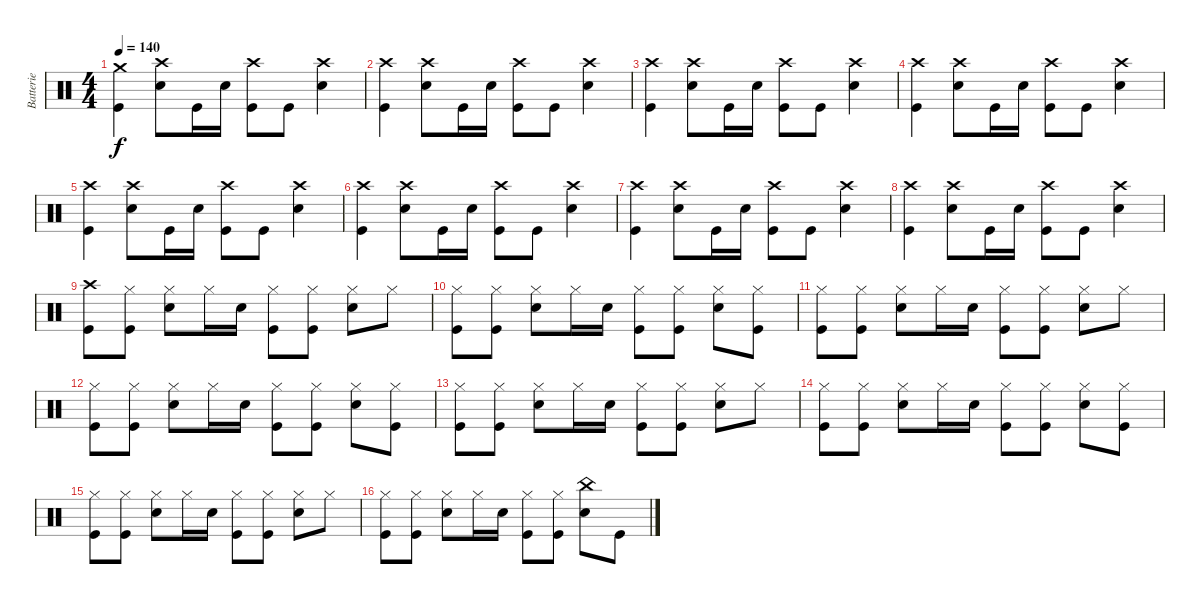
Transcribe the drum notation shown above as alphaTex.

\track ("Batterie" "Batterie") {instrument percussion}
\staff {score}
\articulation defaults
\ts (4 4)
\tempo 140
\clef neutral
\ks c
("Crash medium (hit)" "Kick (hit)").4{dy f} ("Crash high (hit)" "Electric Snare (hit)").8 "Kick (hit)".16 "Electric Snare (hit)".16 ("Crash high (hit)" "Kick (hit)").8 "Kick (hit)".8 ("Crash high (hit)" "Electric Snare (hit)").4 |
("Crash high (hit)" "Kick (hit)").4 ("Crash high (hit)" "Electric Snare (hit)").8 "Kick (hit)".16 "Electric Snare (hit)".16 ("Crash high (hit)" "Kick (hit)").8 "Kick (hit)".8 ("Crash high (hit)" "Electric Snare (hit)").4 |
("Crash high (hit)" "Kick (hit)").4 ("Crash high (hit)" "Electric Snare (hit)").8 "Kick (hit)".16 "Electric Snare (hit)".16 ("Crash high (hit)" "Kick (hit)").8 "Kick (hit)".8 ("Crash high (hit)" "Electric Snare (hit)").4 |
("Crash high (hit)" "Kick (hit)").4 ("Crash high (hit)" "Electric Snare (hit)").8 "Kick (hit)".16 "Electric Snare (hit)".16 ("Crash high (hit)" "Kick (hit)").8 "Kick (hit)".8 ("Crash high (hit)" "Electric Snare (hit)").4 |
("Crash high (hit)" "Kick (hit)").4 ("Crash high (hit)" "Electric Snare (hit)").8 "Kick (hit)".16 "Electric Snare (hit)".16 ("Crash high (hit)" "Kick (hit)").8 "Kick (hit)".8 ("Crash high (hit)" "Electric Snare (hit)").4 |
("Crash high (hit)" "Kick (hit)").4 ("Crash high (hit)" "Electric Snare (hit)").8 "Kick (hit)".16 "Electric Snare (hit)".16 ("Crash high (hit)" "Kick (hit)").8 "Kick (hit)".8 ("Crash high (hit)" "Electric Snare (hit)").4 |
("Crash high (hit)" "Kick (hit)").4 ("Crash high (hit)" "Electric Snare (hit)").8 "Kick (hit)".16 "Electric Snare (hit)".16 ("Crash high (hit)" "Kick (hit)").8 "Kick (hit)".8 ("Crash high (hit)" "Electric Snare (hit)").4 |
("Crash high (hit)" "Kick (hit)").4 ("Crash high (hit)" "Electric Snare (hit)").8 "Kick (hit)".16 "Electric Snare (hit)".16 ("Crash high (hit)" "Kick (hit)").8 "Kick (hit)".8 ("Crash high (hit)" "Electric Snare (hit)").4 |
("Crash high (hit)" "Kick (hit)").8 ("Hi-Hat (closed)" "Kick (hit)").8 ("Hi-Hat (closed)" "Electric Snare (hit)").8 "Hi-Hat (closed)".16 "Electric Snare (hit)".16 ("Hi-Hat (closed)" "Kick (hit)").8 ("Hi-Hat (closed)" "Kick (hit)").8 ("Hi-Hat (closed)" "Electric Snare (hit)").8 "Hi-Hat (closed)".8 |
("Hi-Hat (closed)" "Kick (hit)").8 ("Hi-Hat (closed)" "Kick (hit)").8 ("Hi-Hat (closed)" "Electric Snare (hit)").8 "Hi-Hat (closed)".16 "Electric Snare (hit)".16 ("Hi-Hat (closed)" "Kick (hit)").8 ("Hi-Hat (closed)" "Kick (hit)").8 ("Hi-Hat (closed)" "Electric Snare (hit)").8 ("Hi-Hat (closed)" "Kick (hit)").8 |
("Hi-Hat (closed)" "Kick (hit)").8 ("Hi-Hat (closed)" "Kick (hit)").8 ("Hi-Hat (closed)" "Electric Snare (hit)").8 "Hi-Hat (closed)".16 "Electric Snare (hit)".16 ("Hi-Hat (closed)" "Kick (hit)").8 ("Hi-Hat (closed)" "Kick (hit)").8 ("Hi-Hat (closed)" "Electric Snare (hit)").8 "Hi-Hat (closed)".8 |
("Hi-Hat (closed)" "Kick (hit)").8 ("Hi-Hat (closed)" "Kick (hit)").8 ("Hi-Hat (closed)" "Electric Snare (hit)").8 "Hi-Hat (closed)".16 "Electric Snare (hit)".16 ("Hi-Hat (closed)" "Kick (hit)").8 ("Hi-Hat (closed)" "Kick (hit)").8 ("Hi-Hat (closed)" "Electric Snare (hit)").8 ("Hi-Hat (closed)" "Kick (hit)").8 |
("Hi-Hat (closed)" "Kick (hit)").8 ("Hi-Hat (closed)" "Kick (hit)").8 ("Hi-Hat (closed)" "Electric Snare (hit)").8 "Hi-Hat (closed)".16 "Electric Snare (hit)".16 ("Hi-Hat (closed)" "Kick (hit)").8 ("Hi-Hat (closed)" "Kick (hit)").8 ("Hi-Hat (closed)" "Electric Snare (hit)").8 "Hi-Hat (closed)".8 |
("Hi-Hat (closed)" "Kick (hit)").8 ("Hi-Hat (closed)" "Kick (hit)").8 ("Hi-Hat (closed)" "Electric Snare (hit)").8 "Hi-Hat (closed)".16 "Electric Snare (hit)".16 ("Hi-Hat (closed)" "Kick (hit)").8 ("Hi-Hat (closed)" "Kick (hit)").8 ("Hi-Hat (closed)" "Electric Snare (hit)").8 ("Hi-Hat (closed)" "Kick (hit)").8 |
("Hi-Hat (closed)" "Kick (hit)").8 ("Hi-Hat (closed)" "Kick (hit)").8 ("Hi-Hat (closed)" "Electric Snare (hit)").8 "Hi-Hat (closed)".16 "Electric Snare (hit)".16 ("Hi-Hat (closed)" "Kick (hit)").8 ("Hi-Hat (closed)" "Kick (hit)").8 ("Hi-Hat (closed)" "Electric Snare (hit)").8 "Hi-Hat (closed)".8 |
("Hi-Hat (closed)" "Kick (hit)").8 ("Hi-Hat (closed)" "Kick (hit)").8 ("Hi-Hat (closed)" "Electric Snare (hit)").8 "Hi-Hat (closed)".16 "Electric Snare (hit)".16 ("Hi-Hat (closed)" "Kick (hit)").8 ("Hi-Hat (closed)" "Kick (hit)").8 ("China (hit)" "Electric Snare (hit)").8 "Kick (hit)".8
